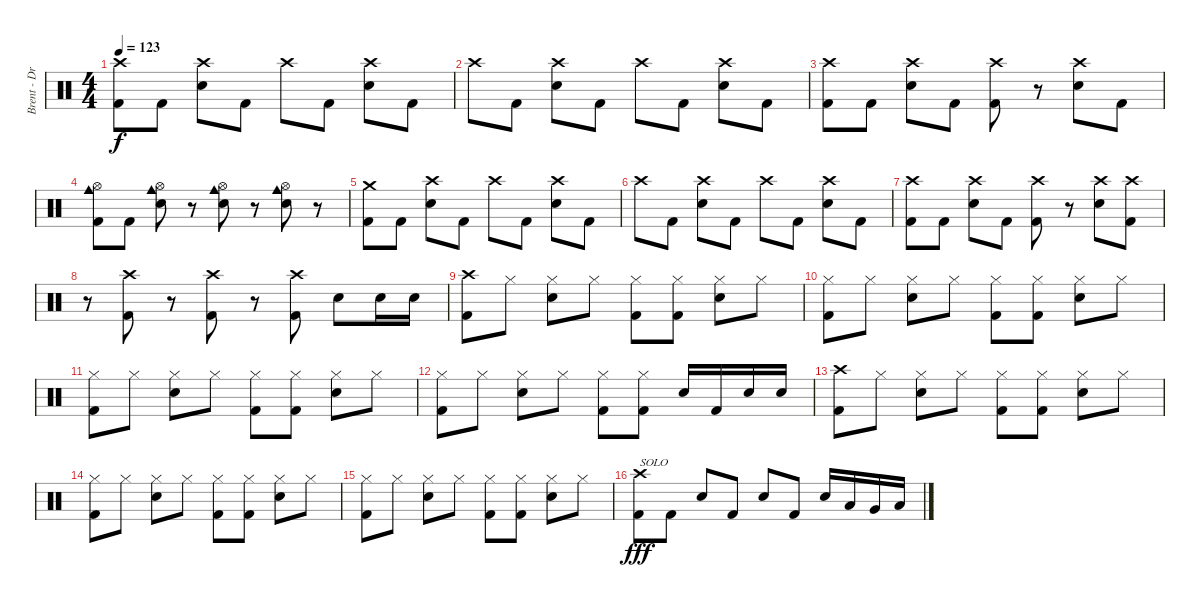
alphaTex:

\track ("Brent - Drums" "Brent - Dr") {instrument percussion}
\staff {score}
\articulation defaults
\ts (4 4)
\tempo 123
\clef neutral
\ks c
("Crash high (hit)" "Kick (hit) 2").8{dy f} "Kick (hit) 2".8 ("Crash high (hit)" "Snare (hit) 2").8 "Kick (hit) 2".8 "Crash high (hit)".8 "Kick (hit) 2".8 ("Crash high (hit)" "Snare (hit) 2").8 "Kick (hit) 2".8 |
"Crash high (hit)".8 "Kick (hit) 2".8 ("Crash high (hit)" "Snare (hit) 2").8 "Kick (hit) 2".8 "Crash high (hit)".8 "Kick (hit) 2".8 ("Crash high (hit)" "Snare (hit) 2").8 "Kick (hit) 2".8 |
("Crash high (hit)" "Kick (hit) 2").8 "Kick (hit) 2".8 ("Crash high (hit)" "Snare (hit) 2").8 "Kick (hit) 2".8 ("Crash high (hit)" "Kick (hit) 2").8 r.8 ("Crash high (hit)" "Snare (hit) 2").8 "Kick (hit) 2".8 |
("Hi-Hat (open)" "Cowbell medium (hit)" "Kick (hit) 2").8 "Kick (hit) 2".8 ("Hi-Hat (open)" "Snare (hit) 2" "Cowbell medium (hit)").8 r.8 ("Hi-Hat (open)" "Snare (hit) 2" "Cowbell medium (hit)").8 r.8 ("Hi-Hat (open)" "Snare (hit) 2" "Cowbell medium (hit)").8 r.8 |
("Crash medium (hit)" "Kick (hit) 2").8 "Kick (hit) 2".8 ("Crash high (hit)" "Snare (hit) 2").8 "Kick (hit) 2".8 "Crash high (hit)".8 "Kick (hit) 2".8 ("Crash high (hit)" "Snare (hit) 2").8 "Kick (hit) 2".8 |
"Crash high (hit)".8 "Kick (hit) 2".8 ("Crash high (hit)" "Snare (hit) 2").8 "Kick (hit) 2".8 "Crash high (hit)".8 "Kick (hit) 2".8 ("Crash high (hit)" "Snare (hit) 2").8 "Kick (hit) 2".8 |
("Crash high (hit)" "Kick (hit) 2").8 "Kick (hit) 2".8 ("Crash high (hit)" "Snare (hit) 2").8 "Kick (hit) 2".8 ("Crash high (hit)" "Kick (hit) 2").8 r.8 ("Crash high (hit)" "Snare (hit) 2").8 ("Crash high (hit)" "Kick (hit) 2").8 |
r.8 ("Crash high (hit)" "Kick (hit) 2").8 r.8 ("Crash high (hit)" "Kick (hit) 2").8 r.8 ("Crash high (hit)" "Kick (hit) 2").8 "Snare (hit) 2".8 "Snare (hit) 2".16 "Snare (hit) 2".16 |
("Crash high (hit)" "Kick (hit) 2").8 "Hi-Hat (closed)".8 ("Hi-Hat (closed)" "Snare (hit) 2").8 "Hi-Hat (closed)".8 ("Hi-Hat (closed)" "Kick (hit) 2").8 ("Hi-Hat (closed)" "Kick (hit) 2").8 ("Hi-Hat (closed)" "Snare (hit) 2").8 "Hi-Hat (closed)".8 |
("Hi-Hat (closed)" "Kick (hit) 2").8 "Hi-Hat (closed)".8 ("Hi-Hat (closed)" "Snare (hit) 2").8 "Hi-Hat (closed)".8 ("Hi-Hat (closed)" "Kick (hit) 2").8 ("Hi-Hat (closed)" "Kick (hit) 2").8 ("Hi-Hat (closed)" "Snare (hit) 2").8 "Hi-Hat (closed)".8 |
("Hi-Hat (closed)" "Kick (hit) 2").8 "Hi-Hat (closed)".8 ("Hi-Hat (closed)" "Snare (hit) 2").8 "Hi-Hat (closed)".8 ("Hi-Hat (closed)" "Kick (hit) 2").8 ("Hi-Hat (closed)" "Kick (hit) 2").8 ("Hi-Hat (closed)" "Snare (hit) 2").8 "Hi-Hat (closed)".8 |
("Hi-Hat (closed)" "Kick (hit) 2").8 "Hi-Hat (closed)".8 ("Hi-Hat (closed)" "Snare (hit) 2").8 "Hi-Hat (closed)".8 ("Hi-Hat (closed)" "Kick (hit) 2").8 ("Hi-Hat (closed)" "Kick (hit) 2").8 "Snare (hit) 2".16 "Kick (hit) 2".16 "Snare (hit) 2".16 "Snare (hit) 2".16 |
("Crash high (hit)" "Kick (hit) 2").8 "Hi-Hat (closed)".8 ("Hi-Hat (closed)" "Snare (hit) 2").8 "Hi-Hat (closed)".8 ("Hi-Hat (closed)" "Kick (hit) 2").8 ("Hi-Hat (closed)" "Kick (hit) 2").8 ("Hi-Hat (closed)" "Snare (hit) 2").8 "Hi-Hat (closed)".8 |
("Hi-Hat (closed)" "Kick (hit) 2").8 "Hi-Hat (closed)".8 ("Hi-Hat (closed)" "Snare (hit) 2").8 "Hi-Hat (closed)".8 ("Hi-Hat (closed)" "Kick (hit) 2").8 ("Hi-Hat (closed)" "Kick (hit) 2").8 ("Hi-Hat (closed)" "Snare (hit) 2").8 "Hi-Hat (closed)".8 |
("Hi-Hat (closed)" "Kick (hit) 2").8 "Hi-Hat (closed)".8 ("Hi-Hat (closed)" "Snare (hit) 2").8 "Hi-Hat (closed)".8 ("Hi-Hat (closed)" "Kick (hit) 2").8 ("Hi-Hat (closed)" "Kick (hit) 2").8 ("Hi-Hat (closed)" "Snare (hit) 2").8 "Hi-Hat (closed)".8 |
("Crash high (hit)" "Kick (hit) 2").8{txt "SOLO" dy fff} "Kick (hit) 2".8 "Snare (hit) 2".8 "Kick (hit) 2".8 "Snare (hit) 2".8 "Kick (hit) 2".8 "Snare (hit) 2".16 "Low Tom (hit)".16 "Very Low Tom (hit)".16 "Low Floor Tom (hit)".16
